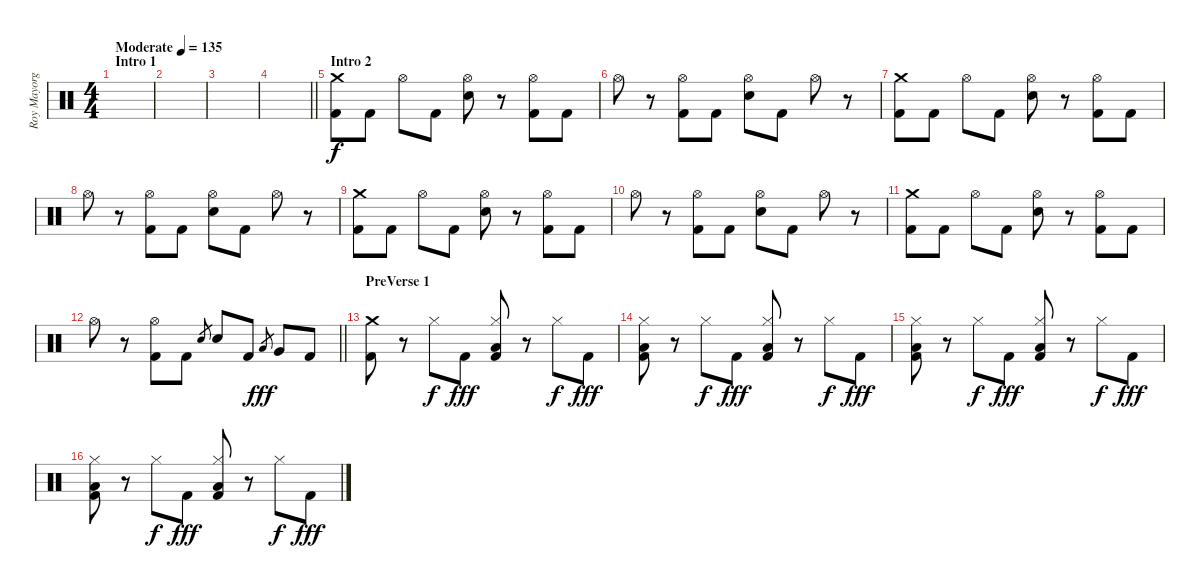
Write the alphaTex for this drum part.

\track ("Roy Mayorga" "Roy Mayorg") {instrument percussion}
\staff {score}
\articulation defaults
\ts (4 4)
\section ("" "Intro 1")
\tempo (135 "Moderate")
\clef neutral
\ks c
|
|
|
\barLineRight lightlight
|
\section ("" "Intro 2")
("Crash medium (hit)" "Kick (hit) 2").8 "Kick (hit) 2".8 "Hi-Hat (open)".8 "Kick (hit) 2".8 ("Hi-Hat (open)" "Electric Snare (hit)").8 r.8 ("Hi-Hat (open)" "Kick (hit) 2").8 "Kick (hit) 2".8 |
"Hi-Hat (open)".8 r.8 ("Hi-Hat (open)" "Kick (hit) 2").8 "Kick (hit) 2".8 ("Hi-Hat (open)" "Electric Snare (hit)").8 "Kick (hit) 2".8 "Hi-Hat (open)".8 r.8 |
("Crash medium (hit)" "Kick (hit) 2").8 "Kick (hit) 2".8 "Hi-Hat (open)".8 "Kick (hit) 2".8 ("Hi-Hat (open)" "Electric Snare (hit)").8 r.8 ("Hi-Hat (open)" "Kick (hit) 2").8 "Kick (hit) 2".8 |
"Hi-Hat (open)".8 r.8 ("Hi-Hat (open)" "Kick (hit) 2").8 "Kick (hit) 2".8 ("Hi-Hat (open)" "Electric Snare (hit)").8 "Kick (hit) 2".8 "Hi-Hat (open)".8 r.8 |
("Crash medium (hit)" "Kick (hit) 2").8 "Kick (hit) 2".8 "Hi-Hat (open)".8 "Kick (hit) 2".8 ("Hi-Hat (open)" "Electric Snare (hit)").8 r.8 ("Hi-Hat (open)" "Kick (hit) 2").8 "Kick (hit) 2".8 |
"Hi-Hat (open)".8 r.8 ("Hi-Hat (open)" "Kick (hit) 2").8 "Kick (hit) 2".8 ("Hi-Hat (open)" "Electric Snare (hit)").8 "Kick (hit) 2".8 "Hi-Hat (open)".8 r.8 |
("Crash medium (hit)" "Kick (hit) 2").8 "Kick (hit) 2".8 "Hi-Hat (open)".8 "Kick (hit) 2".8 ("Hi-Hat (open)" "Electric Snare (hit)").8 r.8 ("Hi-Hat (open)" "Kick (hit) 2").8 "Kick (hit) 2".8 |
\barLineRight lightlight "Hi-Hat (open)".8
r.8 ("Hi-Hat (open)" "Kick (hit) 2").8 "Kick (hit) 2".8 "Electric Snare (hit)".8{gr} "Electric Snare (hit)".8 "Kick (hit) 2".8 "Low Floor Tom (hit)".8{gr dy fff} "Very Low Tom (hit)".8 "Kick (hit) 2".8 |
\section ("" "PreVerse 1")
("Crash medium (hit)" "Kick (hit) 2").8 r.8 "Hi-Hat (closed)".8{dy f} "Kick (hit) 2".8{dy fff} ("Hi-Hat (closed)" "Low Tom (hit)" "Kick (hit) 2").8 r.8 "Hi-Hat (closed)".8{dy f} "Kick (hit) 2".8{dy fff} |
("Hi-Hat (closed)" "Low Floor Tom (hit)" "Kick (hit) 2").8 r.8 "Hi-Hat (closed)".8{dy f} "Kick (hit) 2".8{dy fff} ("Hi-Hat (closed)" "Low Tom (hit)" "Kick (hit) 2").8 r.8 "Hi-Hat (closed)".8{dy f} "Kick (hit) 2".8{dy fff} |
("Hi-Hat (closed)" "Low Floor Tom (hit)" "Kick (hit) 2").8 r.8 "Hi-Hat (closed)".8{dy f} "Kick (hit) 2".8{dy fff} ("Hi-Hat (closed)" "Low Tom (hit)" "Kick (hit) 2").8 r.8 "Hi-Hat (closed)".8{dy f} "Kick (hit) 2".8{dy fff} |
("Hi-Hat (closed)" "Low Floor Tom (hit)" "Kick (hit) 2").8 r.8 "Hi-Hat (closed)".8{dy f} "Kick (hit) 2".8{dy fff} ("Hi-Hat (closed)" "Low Tom (hit)" "Kick (hit) 2").8 r.8 "Hi-Hat (closed)".8{dy f} "Kick (hit) 2".8{dy fff}
